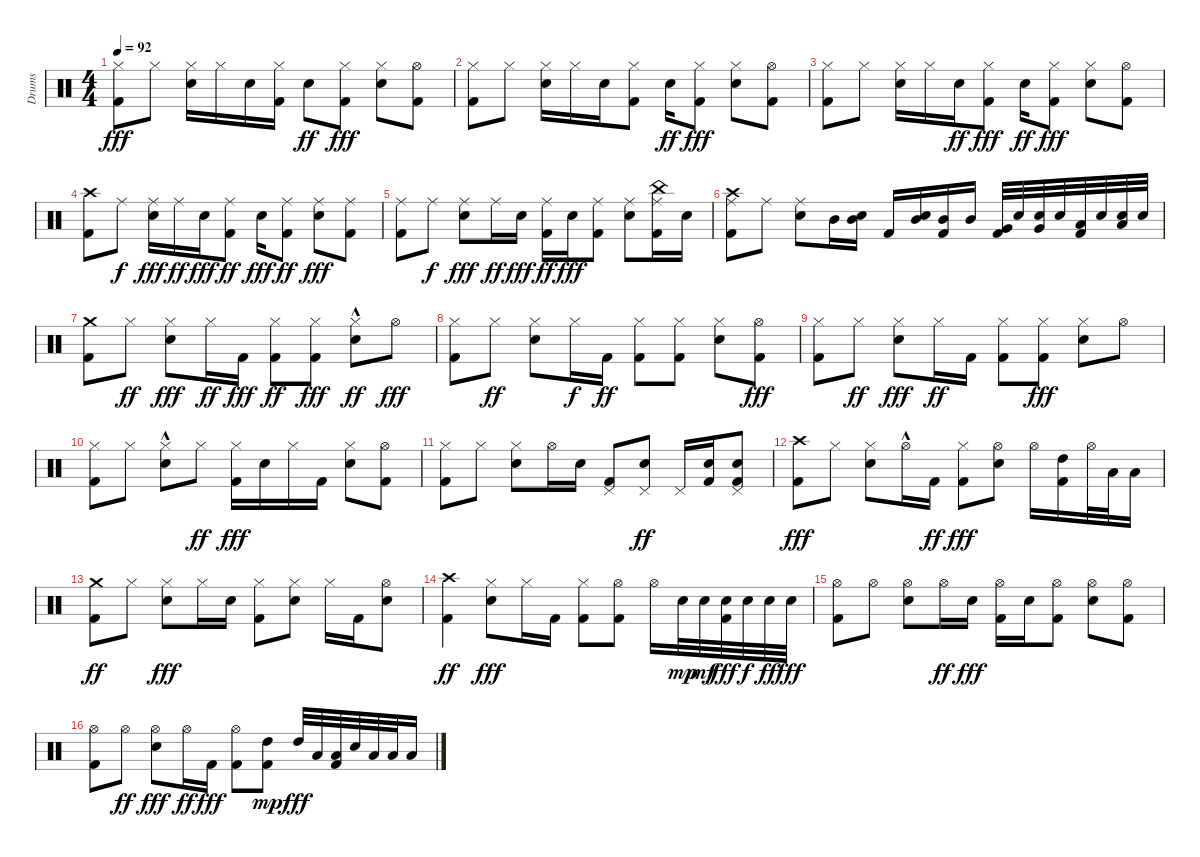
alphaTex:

\track ("Drums" "Drums") {instrument percussion}
\staff {score}
\articulation defaults
\ts (4 4)
\tempo 92
\clef neutral
\ks c
("Kick (hit) 2" "Hi-Hat (closed)").8{dy fff} "Hi-Hat (closed)".8 ("Snare (hit) 2" "Hi-Hat (closed)").16 "Hi-Hat (closed)".16 "Snare (hit) 2".16 ("Kick (hit) 2" "Hi-Hat (closed)").16 "Snare (hit) 2".8{dy ff} ("Kick (hit) 2" "Hi-Hat (closed)").8{dy fff} ("Snare (hit) 2" "Hi-Hat (closed)").8 ("Kick (hit) 2" "Hi-Hat (open)").8 |
("Kick (hit) 2" "Hi-Hat (closed)").8 "Hi-Hat (closed)".8 ("Snare (hit) 2" "Hi-Hat (closed)").16 "Hi-Hat (closed)".16 "Snare (hit) 2".16 ("Kick (hit) 2" "Hi-Hat (closed)").8 "Snare (hit) 2".16{dy ff} ("Kick (hit) 2" "Hi-Hat (closed)").8{dy fff} ("Snare (hit) 2" "Hi-Hat (closed)").8 ("Kick (hit) 2" "Hi-Hat (open)").8 |
("Kick (hit) 2" "Hi-Hat (closed)").8 "Hi-Hat (closed)".8 ("Snare (hit) 2" "Hi-Hat (closed)").16 "Hi-Hat (closed)".16 "Snare (hit) 2".16{dy ff} ("Kick (hit) 2" "Hi-Hat (closed)").8{dy fff} "Snare (hit) 2".16{dy ff} ("Kick (hit) 2" "Hi-Hat (closed)").8{dy fff} ("Snare (hit) 2" "Hi-Hat (closed)").8 ("Kick (hit) 2" "Hi-Hat (open)").8 |
("Kick (hit) 2" "Crash high (hit)").8 "Ride (middle)".8{dy f} ("Snare (hit) 2" "Ride (middle)").16{dy fff} "Ride (middle)".16{dy ff} "Snare (hit) 2".16{dy fff} ("Kick (hit) 2" "Ride (middle)").8{dy ff} "Snare (hit) 2".16{dy fff} ("Kick (hit) 2" "Ride (middle)").8{dy ff} ("Snare (hit) 2" "Ride (middle)").8{dy fff} ("Kick (hit) 2" "Ride (middle)").8 |
("Kick (hit) 2" "Ride (middle)").8 "Ride (middle)".8{dy f} ("Snare (hit) 2" "Ride (middle)").8{dy fff} "Ride (middle)".16{dy ff} "Snare (hit) 2".16{dy fff} ("Kick (hit) 2" "Ride (middle)").16{dy ff} "Snare (hit) 2".16{dy fff} ("Kick (hit) 2" "Ride (middle)").8 ("Snare (hit) 2" "Ride (middle)").8 ("Kick (hit) 2" "Ride (middle)" "China (hit)").16 "Snare (hit) 2".16 |
("Kick (hit) 2" "Ride (middle)" "Crash high (hit)").8 "Ride (middle)".8 ("Snare (hit) 2" "Ride (middle)").8 "Mid Tom (hit)".16 ("Snare (hit) 2" "Mid Tom (hit)").16 "Kick (hit) 2".16 ("Snare (hit) 2" "Mid Tom (hit)").16 ("Kick (hit) 2" "Mid Tom (hit)").16 "Mid Tom (hit)".16 ("Kick (hit) 2" "Very Low Tom (hit)").32 "Snare (hit) 2".32 ("Snare (hit) 2" "Very Low Tom (hit)").32 "Snare (hit) 2".32 ("Kick (hit) 2" "Low Floor Tom (hit)").32 "Snare (hit) 2".32 ("Snare (hit) 2" "Low Floor Tom (hit)").32 "Snare (hit) 2".32 |
("Kick (hit) 2" "Crash medium (hit)").8 "Hi-Hat (closed)".8{dy ff} ("Snare (hit) 2" "Hi-Hat (closed)").8{dy fff} "Hi-Hat (closed)".16{dy ff} "Kick (hit) 2".16{dy fff} ("Kick (hit) 2" "Hi-Hat (closed)").8{dy ff} ("Kick (hit) 2" "Hi-Hat (closed)").8{dy fff} ("Snare (hit) 2"{hac} "Hi-Hat (closed)").8{dy ff} "Hi-Hat (open)".8{dy fff} |
("Kick (hit) 2" "Hi-Hat (closed)").8 "Hi-Hat (closed)".8{dy ff} ("Snare (hit) 2" "Hi-Hat (closed)").8 "Hi-Hat (closed)".16{dy f} "Kick (hit) 2".16{dy ff} ("Kick (hit) 2" "Hi-Hat (closed)").8 ("Kick (hit) 2" "Hi-Hat (closed)").8 ("Snare (hit) 2" "Hi-Hat (closed)").8 ("Kick (hit) 2" "Hi-Hat (open)").8{dy fff} |
("Kick (hit) 2" "Hi-Hat (closed)").8 "Hi-Hat (closed)".8{dy ff} ("Snare (hit) 2" "Hi-Hat (closed)").8{dy fff} "Hi-Hat (closed)".16{dy ff} "Kick (hit) 2".16 ("Kick (hit) 2" "Hi-Hat (closed)").8 ("Kick (hit) 2" "Hi-Hat (closed)").8{dy fff} ("Snare (hit) 2" "Hi-Hat (closed)").8 "Hi-Hat (open)".8 |
("Kick (hit) 2" "Hi-Hat (closed)").8 "Hi-Hat (closed)".8 ("Snare (hit) 2"{hac} "Hi-Hat (closed)").8 "Hi-Hat (closed)".8{dy ff} ("Kick (hit) 2" "Hi-Hat (closed)").16{dy fff} "Snare (hit) 2".16 "Hi-Hat (closed)".16 "Kick (hit) 2".16 ("Snare (hit) 2" "Hi-Hat (closed)").8 ("Kick (hit) 2" "Hi-Hat (open)").8 |
("Kick (hit) 2" "Hi-Hat (closed)").8 "Hi-Hat (closed)".8 ("Snare (hit) 2" "Hi-Hat (closed)").8 "Hi-Hat (open)".16 "Snare (hit) 2".16 ("Kick (hit) 2" "Pedal Hi-Hat (hit)").8 ("Snare (hit) 2" "Pedal Hi-Hat (hit)").8{dy ff} "Pedal Hi-Hat (hit)".16 ("Kick (hit) 2" "Snare (hit) 2").16 ("Kick (hit) 2" "Snare (hit) 2" "Pedal Hi-Hat (hit)").8 |
("Kick (hit) 2" "Crash high (hit)").8{dy fff} "Hi-Hat (closed)".8 ("Snare (hit) 2" "Hi-Hat (closed)").8 "Hi-Hat (open)"{hac}.16 "Kick (hit) 2".16{dy ff} ("Kick (hit) 2" "Hi-Hat (closed)").8{dy fff} ("Snare (hit) 2" "Hi-Hat (open)").8 "Hi-Hat (open)".16 ("Kick (hit) 2" "High Tom (hit)").16 "Hi-Hat (open)".32 "Low Tom (hit)".32 "Low Floor Tom (hit)".16 |
("Kick (hit) 2" "Crash medium (hit)").8{dy ff} "Hi-Hat (closed)".8 ("Snare (hit) 2" "Hi-Hat (closed)").8{dy fff} "Hi-Hat (closed)".16 "Snare (hit) 2".16 ("Kick (hit) 2" "Hi-Hat (closed)").8 ("Snare (hit) 2" "Hi-Hat (closed)").8 "Hi-Hat (closed)".16 "Kick (hit) 2".16 ("Snare (hit) 2" "Hi-Hat (open)").8 |
("Kick (hit) 2" "Crash high (hit)").4{dy ff} ("Snare (hit) 2" "Hi-Hat (closed)").8{dy fff} "Hi-Hat (closed)".16 "Kick (hit) 2".16 ("Kick (hit) 2" "Hi-Hat (closed)").8 ("Kick (hit) 2" "Hi-Hat (open)").8 "Hi-Hat (open)".16 "Snare (hit) 2".32{dy mp} "Snare (hit) 2".32{dy mf} ("Kick (hit) 2" "Snare (hit) 2").32{dy fff} "Snare (hit) 2".32{dy f} "Snare (hit) 2".32{dy ff} "Snare (hit) 2".32{dy fff} |
("Kick (hit) 2" "Hi-Hat (open)").8 "Hi-Hat (open)".8 ("Snare (hit) 2" "Hi-Hat (open)").8 "Hi-Hat (open)".16{dy ff} "Snare (hit) 2".16{dy fff} ("Kick (hit) 2" "Hi-Hat (open)").16 "Snare (hit) 2".16 ("Kick (hit) 2" "Hi-Hat (open)").8 ("Snare (hit) 2" "Hi-Hat (open)").8 ("Kick (hit) 2" "Hi-Hat (open)").8 |
("Kick (hit) 2" "Hi-Hat (open)").8 "Hi-Hat (open)".8{dy ff} ("Snare (hit) 2" "Hi-Hat (open)").8{dy fff} "Hi-Hat (open)".16{dy ff} "Kick (hit) 2".16{dy fff} ("Kick (hit) 2" "Hi-Hat (open)").8 ("Kick (hit) 2" "High Tom (hit)").8{dy mp} "High Tom (hit)".32{dy fff} "Low Tom (hit)".32 ("Kick (hit) 2" "Low Floor Tom (hit)").32 "Snare (hit) 2".32 "Low Floor Tom (hit)".32 "Low Tom (hit)".32 "Low Floor Tom (hit)".16
